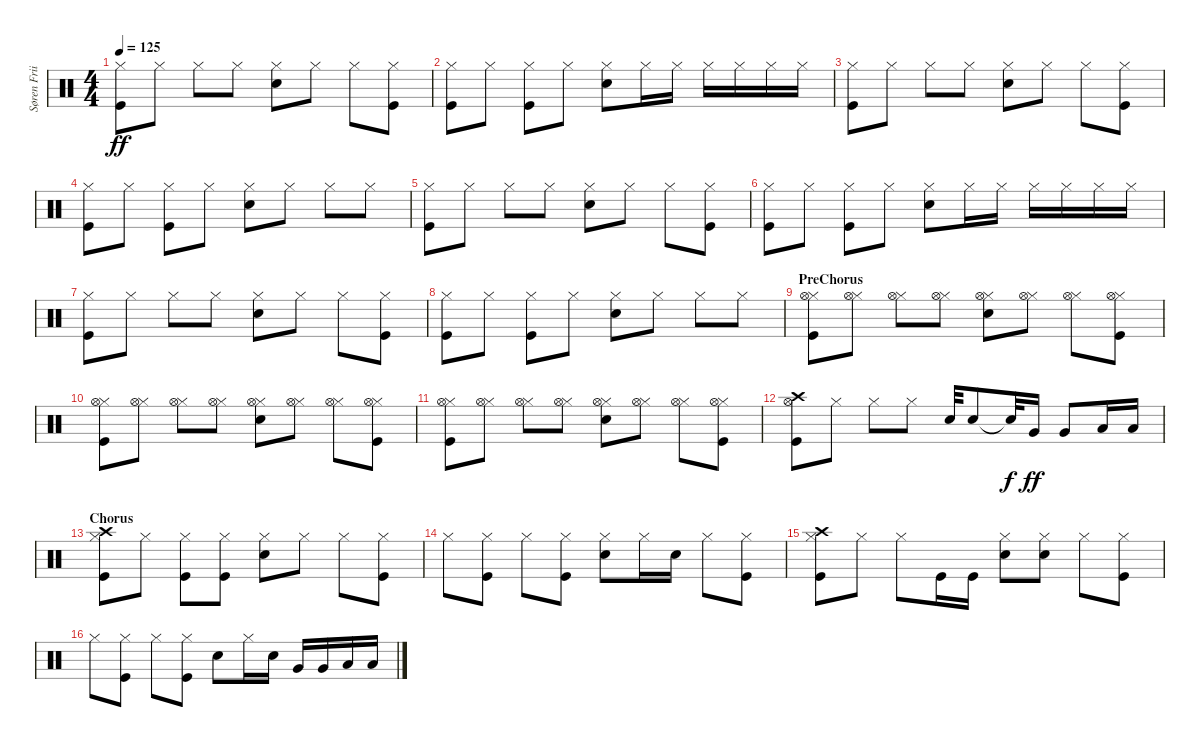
\track ("Søren Friis - Drums" "Søren Frii") {instrument percussion}
\staff {score}
\articulation defaults
\ts (4 4)
\tempo 125
\clef neutral
\ks c
("Kick (hit)" "Hi-Hat (closed)").8{dy ff} "Hi-Hat (closed)".8 "Hi-Hat (closed)".8 "Hi-Hat (closed)".8 ("Snare (hit) 2" "Hi-Hat (closed)").8 "Hi-Hat (closed)".8 "Hi-Hat (closed)".8 ("Kick (hit)" "Hi-Hat (closed)").8 |
("Kick (hit)" "Hi-Hat (closed)").8 "Hi-Hat (closed)".8 ("Kick (hit)" "Hi-Hat (closed)").8 "Hi-Hat (closed)".8 ("Snare (hit) 2" "Hi-Hat (closed)").8 "Hi-Hat (closed)".16 "Hi-Hat (closed)".16 "Hi-Hat (closed)".16 "Hi-Hat (closed)".16 "Hi-Hat (closed)".16 "Hi-Hat (closed)".16 |
("Kick (hit)" "Hi-Hat (closed)").8 "Hi-Hat (closed)".8 "Hi-Hat (closed)".8 "Hi-Hat (closed)".8 ("Snare (hit) 2" "Hi-Hat (closed)").8 "Hi-Hat (closed)".8 "Hi-Hat (closed)".8 ("Kick (hit)" "Hi-Hat (closed)").8 |
("Kick (hit)" "Hi-Hat (closed)").8 "Hi-Hat (closed)".8 ("Kick (hit)" "Hi-Hat (closed)").8 "Hi-Hat (closed)".8 ("Snare (hit) 2" "Hi-Hat (closed)").8 "Hi-Hat (closed)".8 "Hi-Hat (closed)".8 "Hi-Hat (closed)".8 |
("Kick (hit)" "Hi-Hat (closed)").8 "Hi-Hat (closed)".8 "Hi-Hat (closed)".8 "Hi-Hat (closed)".8 ("Snare (hit) 2" "Hi-Hat (closed)").8 "Hi-Hat (closed)".8 "Hi-Hat (closed)".8 ("Kick (hit)" "Hi-Hat (closed)").8 |
("Kick (hit)" "Hi-Hat (closed)").8 "Hi-Hat (closed)".8 ("Kick (hit)" "Hi-Hat (closed)").8 "Hi-Hat (closed)".8 ("Snare (hit) 2" "Hi-Hat (closed)").8 "Hi-Hat (closed)".16 "Hi-Hat (closed)".16 "Hi-Hat (closed)".16 "Hi-Hat (closed)".16 "Hi-Hat (closed)".16 "Hi-Hat (closed)".16 |
("Kick (hit)" "Hi-Hat (closed)").8 "Hi-Hat (closed)".8 "Hi-Hat (closed)".8 "Hi-Hat (closed)".8 ("Snare (hit) 2" "Hi-Hat (closed)").8 "Hi-Hat (closed)".8 "Hi-Hat (closed)".8 ("Kick (hit)" "Hi-Hat (closed)").8 |
("Kick (hit)" "Hi-Hat (closed)").8 "Hi-Hat (closed)".8 ("Kick (hit)" "Hi-Hat (closed)").8 "Hi-Hat (closed)".8 ("Snare (hit) 2" "Hi-Hat (closed)").8 "Hi-Hat (closed)".8 "Hi-Hat (closed)".8 "Hi-Hat (closed)".8 |
\section ("" "PreChorus")
("Kick (hit)" "Hi-Hat (closed)" "Hi-Hat (open)").8 ("Hi-Hat (closed)" "Hi-Hat (open)").8 ("Hi-Hat (closed)" "Hi-Hat (open)").8 ("Hi-Hat (closed)" "Hi-Hat (open)").8 ("Snare (hit) 2" "Hi-Hat (closed)" "Hi-Hat (open)").8 ("Hi-Hat (closed)" "Hi-Hat (open)").8 ("Hi-Hat (closed)" "Hi-Hat (open)").8 ("Kick (hit)" "Hi-Hat (closed)" "Hi-Hat (open)").8 |
("Kick (hit)" "Hi-Hat (closed)" "Hi-Hat (open)").8 ("Hi-Hat (closed)" "Hi-Hat (open)").8 ("Hi-Hat (closed)" "Hi-Hat (open)").8 ("Hi-Hat (closed)" "Hi-Hat (open)").8 ("Snare (hit) 2" "Hi-Hat (closed)" "Hi-Hat (open)").8 ("Hi-Hat (closed)" "Hi-Hat (open)").8 ("Hi-Hat (closed)" "Hi-Hat (open)").8 ("Kick (hit)" "Hi-Hat (closed)" "Hi-Hat (open)").8 |
("Kick (hit)" "Hi-Hat (closed)" "Hi-Hat (open)").8 ("Hi-Hat (closed)" "Hi-Hat (open)").8 ("Hi-Hat (closed)" "Hi-Hat (open)").8 ("Hi-Hat (closed)" "Hi-Hat (open)").8 ("Snare (hit) 2" "Hi-Hat (closed)" "Hi-Hat (open)").8 ("Hi-Hat (closed)" "Hi-Hat (open)").8 ("Hi-Hat (closed)" "Hi-Hat (open)").8 ("Kick (hit)" "Hi-Hat (closed)" "Hi-Hat (open)").8 |
("Kick (hit)" "Hi-Hat (open)" "Crash high (hit)").8 "Hi-Hat (closed)".8 "Hi-Hat (closed)".8 "Hi-Hat (closed)".8 "Snare (hit) 2".32 "Snare (hit) 2".8 "Snare (hit)"{t}.32{dy f} "Very Low Tom (hit)".16{dy ff} "Very Low Tom (hit)".8 "Low Floor Tom (hit)".16 "Low Floor Tom (hit)".16 |
\section ("" "Chorus")
("Kick (hit)" "Hi-Hat (closed)" "Crash high (hit)").8 "Hi-Hat (closed)".8 ("Kick (hit)" "Hi-Hat (closed)").8 ("Kick (hit)" "Hi-Hat (closed)").8 ("Snare (hit) 2" "Hi-Hat (closed)").8 "Hi-Hat (closed)".8 "Hi-Hat (closed)".8 ("Kick (hit)" "Hi-Hat (closed)").8 |
"Hi-Hat (closed)".8 ("Kick (hit)" "Hi-Hat (closed)").8 "Hi-Hat (closed)".8 ("Kick (hit)" "Hi-Hat (closed)").8 ("Snare (hit) 2" "Hi-Hat (closed)").8 "Hi-Hat (closed)".16 "Snare (hit) 2".16 "Hi-Hat (closed)".8 ("Kick (hit)" "Hi-Hat (closed)").8 |
("Kick (hit)" "Hi-Hat (closed)" "Crash high (hit)").8 "Hi-Hat (closed)".8 "Hi-Hat (closed)".8 "Kick (hit)".16 "Kick (hit)".16 ("Snare (hit) 2" "Hi-Hat (closed)").8 ("Snare (hit) 2" "Hi-Hat (closed)").8 "Hi-Hat (closed)".8 ("Kick (hit)" "Hi-Hat (closed)").8 |
"Hi-Hat (closed)".8 ("Kick (hit)" "Hi-Hat (closed)").8 "Hi-Hat (closed)".8 ("Kick (hit)" "Hi-Hat (closed)").8 "Snare (hit) 2".8 "Hi-Hat (closed)".16 "Snare (hit) 2".16 "Very Low Tom (hit)".16 "Very Low Tom (hit)".16 "Low Floor Tom (hit)".16 "Low Floor Tom (hit)".16
